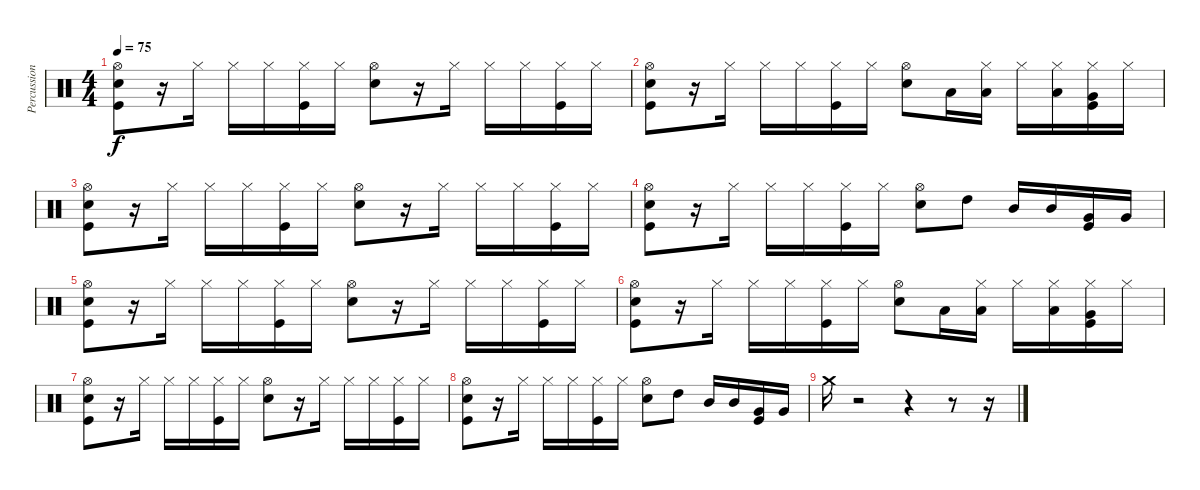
\track ("Percussion" "Percussion") {instrument percussion}
\staff {score}
\articulation defaults
\ts (4 4)
\tempo 75
\clef neutral
\ks c
("Hi-Hat (open)" "Kick (hit)" "Snare (hit) 2").8{dy f} r.16 "Hi-Hat (closed)".16 "Hi-Hat (closed)".16 "Hi-Hat (closed)".16 ("Kick (hit)" "Hi-Hat (closed)").16 "Hi-Hat (closed)".16 ("Snare (hit) 2" "Hi-Hat (open)").8 r.16 "Hi-Hat (closed)".16 "Hi-Hat (closed)".16 "Hi-Hat (closed)".16 ("Kick (hit)" "Hi-Hat (closed)").16 "Hi-Hat (closed)".16 |
("Hi-Hat (open)" "Kick (hit)" "Snare (hit) 2").8 r.16 "Hi-Hat (closed)".16 "Hi-Hat (closed)".16 "Hi-Hat (closed)".16 ("Kick (hit)" "Hi-Hat (closed)").16 "Hi-Hat (closed)".16 ("Snare (hit) 2" "Hi-Hat (open)").8 "Low Tom (hit)".16 ("Low Tom (hit)" "Hi-Hat (closed)").16 "Hi-Hat (closed)".16 ("Low Tom (hit)" "Hi-Hat (closed)").16 ("Very Low Tom (hit)" "Kick (hit)" "Hi-Hat (closed)").16 "Hi-Hat (closed)".16 |
("Hi-Hat (open)" "Kick (hit)" "Snare (hit) 2").8 r.16 "Hi-Hat (closed)".16 "Hi-Hat (closed)".16 "Hi-Hat (closed)".16 ("Kick (hit)" "Hi-Hat (closed)").16 "Hi-Hat (closed)".16 ("Snare (hit) 2" "Hi-Hat (open)").8 r.16 "Hi-Hat (closed)".16 "Hi-Hat (closed)".16 "Hi-Hat (closed)".16 ("Kick (hit)" "Hi-Hat (closed)").16 "Hi-Hat (closed)".16 |
("Hi-Hat (open)" "Kick (hit)" "Snare (hit) 2").8 r.16 "Hi-Hat (closed)".16 "Hi-Hat (closed)".16 "Hi-Hat (closed)".16 ("Kick (hit)" "Hi-Hat (closed)").16 "Hi-Hat (closed)".16 ("Snare (hit) 2" "Hi-Hat (open)").8 "High Tom (hit)".8 "Mid Tom (hit)".16 "Mid Tom (hit)".16 ("Very Low Tom (hit)" "Kick (hit)").16 "Very Low Tom (hit)".16 |
("Hi-Hat (open)" "Kick (hit)" "Snare (hit) 2").8 r.16 "Hi-Hat (closed)".16 "Hi-Hat (closed)".16 "Hi-Hat (closed)".16 ("Kick (hit)" "Hi-Hat (closed)").16 "Hi-Hat (closed)".16 ("Snare (hit) 2" "Hi-Hat (open)").8 r.16 "Hi-Hat (closed)".16 "Hi-Hat (closed)".16 "Hi-Hat (closed)".16 ("Kick (hit)" "Hi-Hat (closed)").16 "Hi-Hat (closed)".16 |
("Hi-Hat (open)" "Kick (hit)" "Snare (hit) 2").8 r.16 "Hi-Hat (closed)".16 "Hi-Hat (closed)".16 "Hi-Hat (closed)".16 ("Kick (hit)" "Hi-Hat (closed)").16 "Hi-Hat (closed)".16 ("Snare (hit) 2" "Hi-Hat (open)").8 "Low Tom (hit)".16 ("Low Tom (hit)" "Hi-Hat (closed)").16 "Hi-Hat (closed)".16 ("Low Tom (hit)" "Hi-Hat (closed)").16 ("Very Low Tom (hit)" "Kick (hit)" "Hi-Hat (closed)").16 "Hi-Hat (closed)".16 |
("Hi-Hat (open)" "Kick (hit)" "Snare (hit) 2").8 r.16 "Hi-Hat (closed)".16 "Hi-Hat (closed)".16 "Hi-Hat (closed)".16 ("Kick (hit)" "Hi-Hat (closed)").16 "Hi-Hat (closed)".16 ("Snare (hit) 2" "Hi-Hat (open)").8 r.16 "Hi-Hat (closed)".16 "Hi-Hat (closed)".16 "Hi-Hat (closed)".16 ("Kick (hit)" "Hi-Hat (closed)").16 "Hi-Hat (closed)".16 |
("Hi-Hat (open)" "Kick (hit)" "Snare (hit) 2").8 r.16 "Hi-Hat (closed)".16 "Hi-Hat (closed)".16 "Hi-Hat (closed)".16 ("Kick (hit)" "Hi-Hat (closed)").16 "Hi-Hat (closed)".16 ("Snare (hit) 2" "Hi-Hat (open)").8 "High Tom (hit)".8 "Mid Tom (hit)".16 "Mid Tom (hit)".16 ("Very Low Tom (hit)" "Kick (hit)").16 "Very Low Tom (hit)".16 |
"Crash medium (hit)".16 r.2 r.4 r.8 r.16
